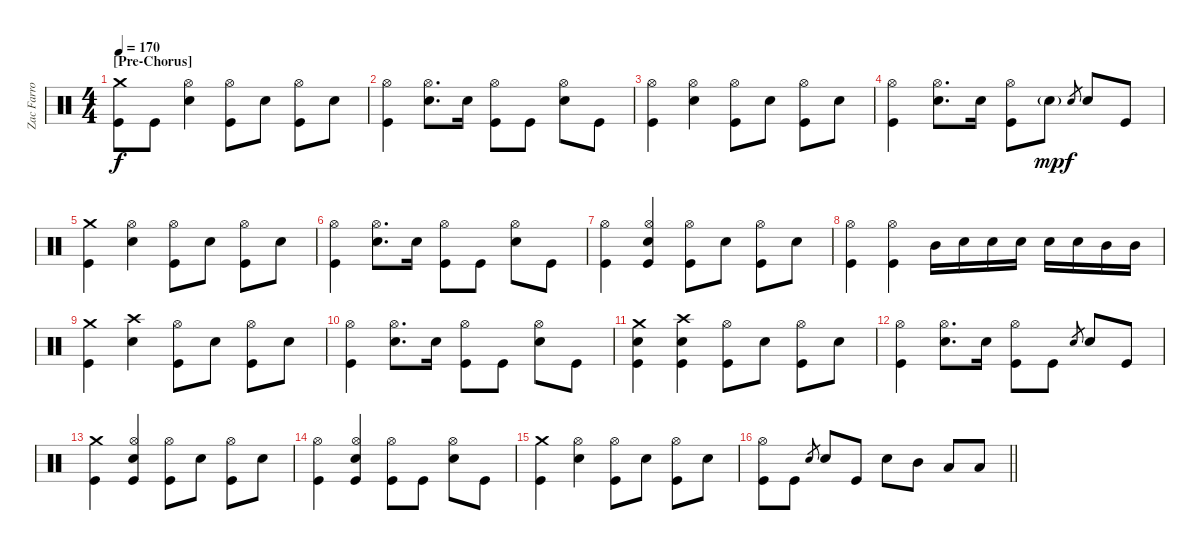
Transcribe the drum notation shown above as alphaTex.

\track ("Zac Farro" "Zac Farro") {instrument percussion}
\staff {score}
\articulation defaults
\ts (4 4)
\section ("" "[Pre-Chorus]")
\tempo 170
\clef neutral
\ks c
("Crash medium (hit)" "Kick (hit)").8{dy f} "Kick (hit)".8 ("Hi-Hat (open)" "Electric Snare (hit)").4 ("Hi-Hat (open)" "Kick (hit)").8 "Electric Snare (hit)".8 ("Hi-Hat (open)" "Kick (hit)").8 "Electric Snare (hit)".8 |
("Hi-Hat (open)" "Kick (hit)").4 ("Hi-Hat (open)" "Electric Snare (hit)").8{d} "Electric Snare (hit)".16 ("Hi-Hat (open)" "Kick (hit)").8 "Kick (hit)".8 ("Hi-Hat (open)" "Electric Snare (hit)").8 "Kick (hit)".8 |
("Hi-Hat (open)" "Kick (hit)").4 ("Hi-Hat (open)" "Electric Snare (hit)").4 ("Hi-Hat (open)" "Kick (hit)").8 "Electric Snare (hit)".8 ("Hi-Hat (open)" "Kick (hit)").8 "Electric Snare (hit)".8 |
("Hi-Hat (open)" "Kick (hit)").4 ("Hi-Hat (open)" "Electric Snare (hit)").8{d} "Electric Snare (hit)".16 ("Hi-Hat (open)" "Kick (hit)").8 "Electric Snare (hit)"{g}.8{dy mp} "Electric Snare (hit)".8{gr dy f} "Electric Snare (hit)".8 "Kick (hit)".8 |
("Crash medium (hit)" "Kick (hit)").4 ("Hi-Hat (open)" "Electric Snare (hit)").4 ("Hi-Hat (open)" "Kick (hit)").8 "Electric Snare (hit)".8 ("Hi-Hat (open)" "Kick (hit)").8 "Electric Snare (hit)".8 |
("Hi-Hat (open)" "Kick (hit)").4 ("Hi-Hat (open)" "Electric Snare (hit)").8{d} "Electric Snare (hit)".16 ("Hi-Hat (open)" "Kick (hit)").8 "Kick (hit)".8 ("Hi-Hat (open)" "Electric Snare (hit)").8 "Kick (hit)".8 |
("Hi-Hat (open)" "Kick (hit)").4 ("Hi-Hat (open)" "Electric Snare (hit)" "Kick (hit)").4 ("Hi-Hat (open)" "Kick (hit)").8 "Electric Snare (hit)".8 ("Hi-Hat (open)" "Kick (hit)").8 "Electric Snare (hit)".8 |
("Hi-Hat (open)" "Kick (hit)").4 ("Hi-Hat (open)" "Kick (hit)").4 "Mid Tom (hit)".16 "Electric Snare (hit)".16 "Electric Snare (hit)".16 "Electric Snare (hit)".16 "Electric Snare (hit)".16 "Electric Snare (hit)".16 "Mid Tom (hit)".16 "Mid Tom (hit)".16 |
("Crash medium (hit)" "Kick (hit)").4 ("Crash high (hit)" "Electric Snare (hit)").4 ("Hi-Hat (open)" "Kick (hit)").8 "Electric Snare (hit)".8 ("Hi-Hat (open)" "Kick (hit)").8 "Electric Snare (hit)".8 |
("Hi-Hat (open)" "Kick (hit)").4 ("Hi-Hat (open)" "Electric Snare (hit)").8{d} "Electric Snare (hit)".16 ("Hi-Hat (open)" "Kick (hit)").8 "Kick (hit)".8 ("Hi-Hat (open)" "Electric Snare (hit)").8 "Kick (hit)".8 |
("Crash medium (hit)" "Electric Snare (hit)" "Kick (hit)").4 ("Crash high (hit)" "Electric Snare (hit)" "Kick (hit)").4 ("Hi-Hat (open)" "Kick (hit)").8 "Electric Snare (hit)".8 ("Hi-Hat (open)" "Kick (hit)").8 "Electric Snare (hit)".8 |
("Hi-Hat (open)" "Kick (hit)").4 ("Hi-Hat (open)" "Electric Snare (hit)").8{d} "Electric Snare (hit)".16 ("Hi-Hat (open)" "Kick (hit)").8 "Kick (hit)".8 "Electric Snare (hit)".8{gr} "Electric Snare (hit)".8 "Kick (hit)".8 |
("Crash medium (hit)" "Kick (hit)").4 ("Hi-Hat (open)" "Electric Snare (hit)" "Kick (hit)").4 ("Hi-Hat (open)" "Kick (hit)").8 "Electric Snare (hit)".8 ("Hi-Hat (open)" "Kick (hit)").8 "Electric Snare (hit)".8 |
("Hi-Hat (open)" "Kick (hit)").4 ("Hi-Hat (open)" "Electric Snare (hit)" "Kick (hit)").4 ("Hi-Hat (open)" "Kick (hit)").8 "Kick (hit)".8 ("Hi-Hat (open)" "Electric Snare (hit)").8 "Kick (hit)".8 |
("Crash medium (hit)" "Kick (hit)").4 ("Hi-Hat (open)" "Electric Snare (hit)").4 ("Hi-Hat (open)" "Kick (hit)").8 "Electric Snare (hit)".8 ("Hi-Hat (open)" "Kick (hit)").8 "Electric Snare (hit)".8 |
\barLineRight lightlight
("Hi-Hat (open)" "Kick (hit)").8 "Kick (hit)".8 "Electric Snare (hit)".8{gr} "Electric Snare (hit)".8 "Kick (hit)".8 "Electric Snare (hit)".8 "Mid Tom (hit)".8 "Low Tom (hit)".8 "Low Tom (hit)".8
